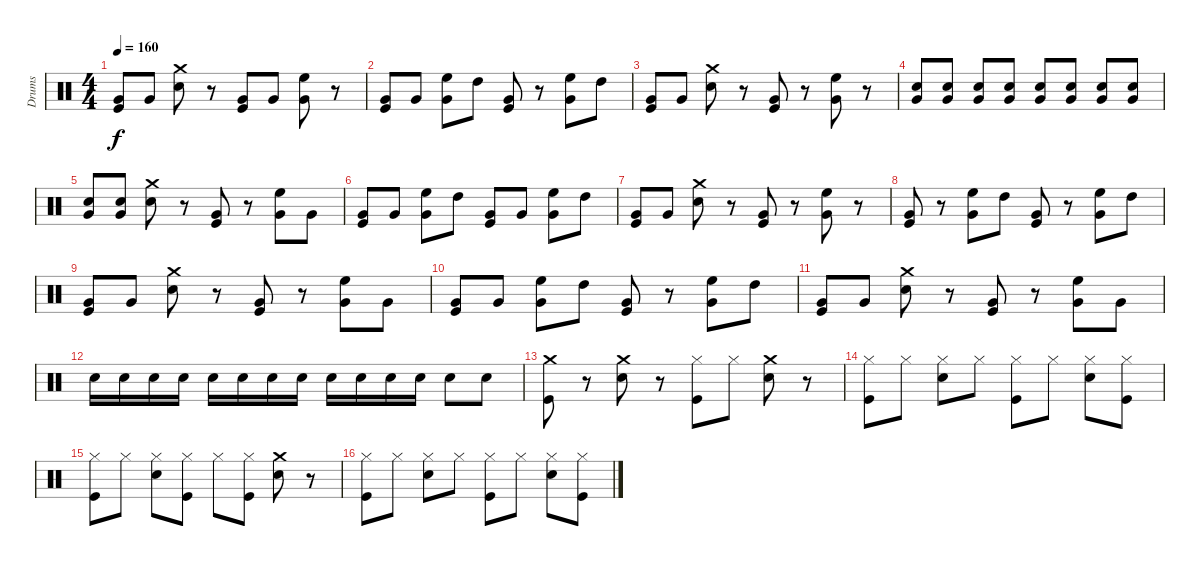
\track ("Drums" "Drums") {instrument percussion}
\staff {score}
\articulation defaults
\ts (4 4)
\tempo 160
\clef neutral
\ks c
("Kick (hit)" "Very Low Tom (hit)").8{dy f} "Very Low Tom (hit)".8 ("Crash medium (hit)" "Snare (hit) 2").8 r.8 ("Kick (hit)" "Very Low Tom (hit)").8 "Very Low Tom (hit)".8 ("High Floor Tom (hit)" "Very Low Tom (hit)").8 r.8 |
("Kick (hit)" "Very Low Tom (hit)").8 "Very Low Tom (hit)".8 ("High Floor Tom (hit)" "Very Low Tom (hit)").8 "High Tom (hit)".8 ("Kick (hit)" "Very Low Tom (hit)").8 r.8 ("Very Low Tom (hit)" "High Floor Tom (hit)").8 "High Tom (hit)".8 |
("Kick (hit)" "Very Low Tom (hit)").8 "Very Low Tom (hit)".8 ("Crash medium (hit)" "Snare (hit) 2").8 r.8 ("Kick (hit)" "Very Low Tom (hit)").8 r.8 ("High Floor Tom (hit)" "Very Low Tom (hit)").8 r.8 |
("Snare (hit) 2" "Very Low Tom (hit)").8 ("Snare (hit) 2" "Very Low Tom (hit)").8 ("Snare (hit) 2" "Very Low Tom (hit)").8 ("Snare (hit) 2" "Very Low Tom (hit)").8 ("Snare (hit) 2" "Very Low Tom (hit)").8 ("Snare (hit) 2" "Very Low Tom (hit)").8 ("Snare (hit) 2" "Very Low Tom (hit)").8 ("Snare (hit) 2" "Very Low Tom (hit)").8 |
("Snare (hit) 2" "Very Low Tom (hit)").8 ("Snare (hit) 2" "Very Low Tom (hit)").8 ("Crash medium (hit)" "Snare (hit) 2").8 r.8 ("Kick (hit)" "Very Low Tom (hit)").8 r.8 ("High Floor Tom (hit)" "Very Low Tom (hit)").8 "Very Low Tom (hit)".8 |
("Kick (hit)" "Very Low Tom (hit)").8 "Very Low Tom (hit)".8 ("High Floor Tom (hit)" "Very Low Tom (hit)").8 "High Tom (hit)".8 ("Very Low Tom (hit)" "Kick (hit)").8 "Very Low Tom (hit)".8 ("High Floor Tom (hit)" "Very Low Tom (hit)").8 "High Tom (hit)".8 |
("Kick (hit)" "Very Low Tom (hit)").8 "Very Low Tom (hit)".8 ("Crash medium (hit)" "Snare (hit) 2").8 r.8 ("Kick (hit)" "Very Low Tom (hit)").8 r.8 ("High Floor Tom (hit)" "Very Low Tom (hit)").8 r.8 |
("Kick (hit)" "Very Low Tom (hit)").8 r.8 ("High Floor Tom (hit)" "Very Low Tom (hit)").8 "High Tom (hit)".8 ("Kick (hit)" "Very Low Tom (hit)").8 r.8 ("High Floor Tom (hit)" "Very Low Tom (hit)").8 "High Tom (hit)".8 |
("Kick (hit)" "Very Low Tom (hit)").8 "Very Low Tom (hit)".8 ("Crash medium (hit)" "Snare (hit) 2").8 r.8 ("Kick (hit)" "Very Low Tom (hit)").8 r.8 ("High Floor Tom (hit)" "Very Low Tom (hit)").8 "Very Low Tom (hit)".8 |
("Kick (hit)" "Very Low Tom (hit)").8 "Very Low Tom (hit)".8 ("High Floor Tom (hit)" "Very Low Tom (hit)").8 "High Tom (hit)".8 ("Very Low Tom (hit)" "Kick (hit)").8 r.8 ("High Floor Tom (hit)" "Very Low Tom (hit)").8 "High Tom (hit)".8 |
("Kick (hit)" "Very Low Tom (hit)").8 "Very Low Tom (hit)".8 ("Crash medium (hit)" "Snare (hit) 2").8 r.8 ("Kick (hit)" "Very Low Tom (hit)").8 r.8 ("High Floor Tom (hit)" "Very Low Tom (hit)").8 "Very Low Tom (hit)".8 |
"Snare (hit) 2".16 "Snare (hit) 2".16 "Snare (hit) 2".16 "Snare (hit) 2".16 "Snare (hit) 2".16 "Snare (hit) 2".16 "Snare (hit) 2".16 "Snare (hit) 2".16 "Snare (hit) 2".16 "Snare (hit) 2".16 "Snare (hit) 2".16 "Snare (hit) 2".16 "Snare (hit) 2".8 "Snare (hit) 2".8 |
("Crash medium (hit)" "Kick (hit)").8 r.8 ("Snare (hit) 2" "Crash medium (hit)").8 r.8 ("Hi-Hat (closed)" "Kick (hit)").8 "Hi-Hat (closed)".8 ("Crash medium (hit)" "Snare (hit) 2").8 r.8 |
("Hi-Hat (closed)" "Kick (hit)").8 "Hi-Hat (closed)".8 ("Snare (hit) 2" "Hi-Hat (closed)").8 "Hi-Hat (closed)".8 ("Kick (hit)" "Hi-Hat (closed)").8 "Hi-Hat (closed)".8 ("Snare (hit) 2" "Hi-Hat (closed)").8 ("Kick (hit)" "Hi-Hat (closed)").8 |
("Hi-Hat (closed)" "Kick (hit)").8 "Hi-Hat (closed)".8 ("Snare (hit) 2" "Hi-Hat (closed)").8 ("Hi-Hat (closed)" "Kick (hit)").8 "Hi-Hat (closed)".8 ("Kick (hit)" "Hi-Hat (closed)").8 ("Crash medium (hit)" "Snare (hit) 2").8 r.8 |
("Hi-Hat (closed)" "Kick (hit)").8 "Hi-Hat (closed)".8 ("Snare (hit) 2" "Hi-Hat (closed)").8 "Hi-Hat (closed)".8 ("Hi-Hat (closed)" "Kick (hit)").8 "Hi-Hat (closed)".8 ("Snare (hit) 2" "Hi-Hat (closed)").8 ("Hi-Hat (closed)" "Kick (hit)").8
